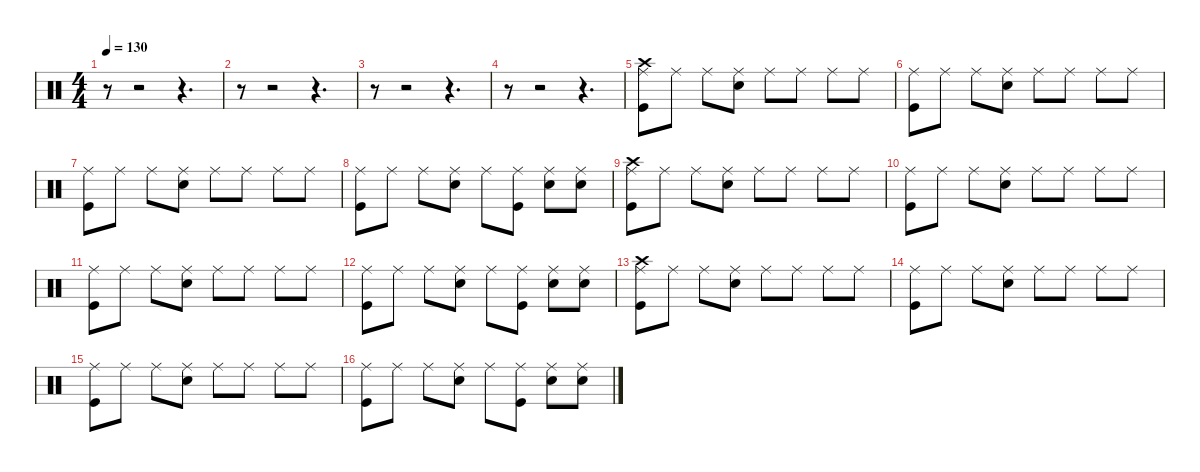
\defaultSystemsLayout 4
\hideDynamics
\bracketExtendMode nobrackets
\singleTrackTrackNamePolicy hidden
\multiTrackTrackNamePolicy hidden
\firstSystemTrackNameMode fullname
\firstSystemTrackNameOrientation horizontal
\otherSystemsTrackNameOrientation horizontal
\track ("Percussion" "drm.") {instrument percussion}
\staff {score}
\articulation defaults
\ts (4 4)
\tempo 130
\clef neutral
\ks c
r.8{dy f beam Down} r.2{beam Down} r.4{d beam Down} |
r.8{beam Down} r.2{beam Down} r.4{d beam Down} |
r.8{beam Down} r.2{beam Down} r.4{d beam Down} |
r.8{beam Down} r.2{beam Down} r.4{d beam Down} |
("Crash high (hit)" "Ride (middle)" "Kick (hit)").8{beam Down} "Ride (middle)".8{beam Down} "Ride (middle)".8{beam Down} ("Ride (middle)" "Snare (hit) 2").8{beam Down} "Ride (middle)".8{beam Down} "Ride (middle)".8{beam Down} "Ride (middle)".8{beam Down} "Ride (middle)".8{beam Down} |
("Ride (middle)" "Kick (hit)").8{beam Down} "Ride (middle)".8{beam Down} "Ride (middle)".8{beam Down} ("Ride (middle)" "Snare (hit) 2").8{beam Down} "Ride (middle)".8{beam Down} "Ride (middle)".8{beam Down} "Ride (middle)".8{beam Down} "Ride (middle)".8{beam Down} |
("Ride (middle)" "Kick (hit)").8{beam Down} "Ride (middle)".8{beam Down} "Ride (middle)".8{beam Down} ("Ride (middle)" "Snare (hit) 2").8{beam Down} "Ride (middle)".8{beam Down} "Ride (middle)".8{beam Down} "Ride (middle)".8{beam Down} "Ride (middle)".8{beam Down} |
("Ride (middle)" "Kick (hit)").8{beam Down} "Ride (middle)".8{beam Down} "Ride (middle)".8{beam Down} ("Ride (middle)" "Snare (hit) 2").8{beam Down} "Ride (middle)".8{beam Down} ("Ride (middle)" "Kick (hit)").8{beam Down} ("Ride (middle)" "Snare (hit) 2").8{beam Down} ("Ride (middle)" "Snare (hit) 2").8{beam Down} |
("Crash high (hit)" "Ride (middle)" "Kick (hit)").8{beam Down} "Ride (middle)".8{beam Down} "Ride (middle)".8{beam Down} ("Ride (middle)" "Snare (hit) 2").8{beam Down} "Ride (middle)".8{beam Down} "Ride (middle)".8{beam Down} "Ride (middle)".8{beam Down} "Ride (middle)".8{beam Down} |
("Ride (middle)" "Kick (hit)").8{beam Down} "Ride (middle)".8{beam Down} "Ride (middle)".8{beam Down} ("Ride (middle)" "Snare (hit) 2").8{beam Down} "Ride (middle)".8{beam Down} "Ride (middle)".8{beam Down} "Ride (middle)".8{beam Down} "Ride (middle)".8{beam Down} |
("Ride (middle)" "Kick (hit)").8{beam Down} "Ride (middle)".8{beam Down} "Ride (middle)".8{beam Down} ("Ride (middle)" "Snare (hit) 2").8{beam Down} "Ride (middle)".8{beam Down} "Ride (middle)".8{beam Down} "Ride (middle)".8{beam Down} "Ride (middle)".8{beam Down} |
("Ride (middle)" "Kick (hit)").8{beam Down} "Ride (middle)".8{beam Down} "Ride (middle)".8{beam Down} ("Ride (middle)" "Snare (hit) 2").8{beam Down} "Ride (middle)".8{beam Down} ("Ride (middle)" "Kick (hit)").8{beam Down} ("Ride (middle)" "Snare (hit) 2").8{beam Down} ("Ride (middle)" "Snare (hit) 2").8{beam Down} |
("Crash high (hit)" "Ride (middle)" "Kick (hit)").8{beam Down} "Ride (middle)".8{beam Down} "Ride (middle)".8{beam Down} ("Ride (middle)" "Snare (hit) 2").8{beam Down} "Ride (middle)".8{beam Down} "Ride (middle)".8{beam Down} "Ride (middle)".8{beam Down} "Ride (middle)".8{beam Down} |
("Ride (middle)" "Kick (hit)").8{beam Down} "Ride (middle)".8{beam Down} "Ride (middle)".8{beam Down} ("Ride (middle)" "Snare (hit) 2").8{beam Down} "Ride (middle)".8{beam Down} "Ride (middle)".8{beam Down} "Ride (middle)".8{beam Down} "Ride (middle)".8{beam Down} |
("Ride (middle)" "Kick (hit)").8{beam Down} "Ride (middle)".8{beam Down} "Ride (middle)".8{beam Down} ("Ride (middle)" "Snare (hit) 2").8{beam Down} "Ride (middle)".8{beam Down} "Ride (middle)".8{beam Down} "Ride (middle)".8{beam Down} "Ride (middle)".8{beam Down} |
("Ride (middle)" "Kick (hit)").8{beam Down} "Ride (middle)".8{beam Down} "Ride (middle)".8{beam Down} ("Ride (middle)" "Snare (hit) 2").8{beam Down} "Ride (middle)".8{beam Down} ("Ride (middle)" "Kick (hit)").8{beam Down} ("Ride (middle)" "Snare (hit) 2").8{beam Down} ("Ride (middle)" "Snare (hit) 2").8{beam Down}
